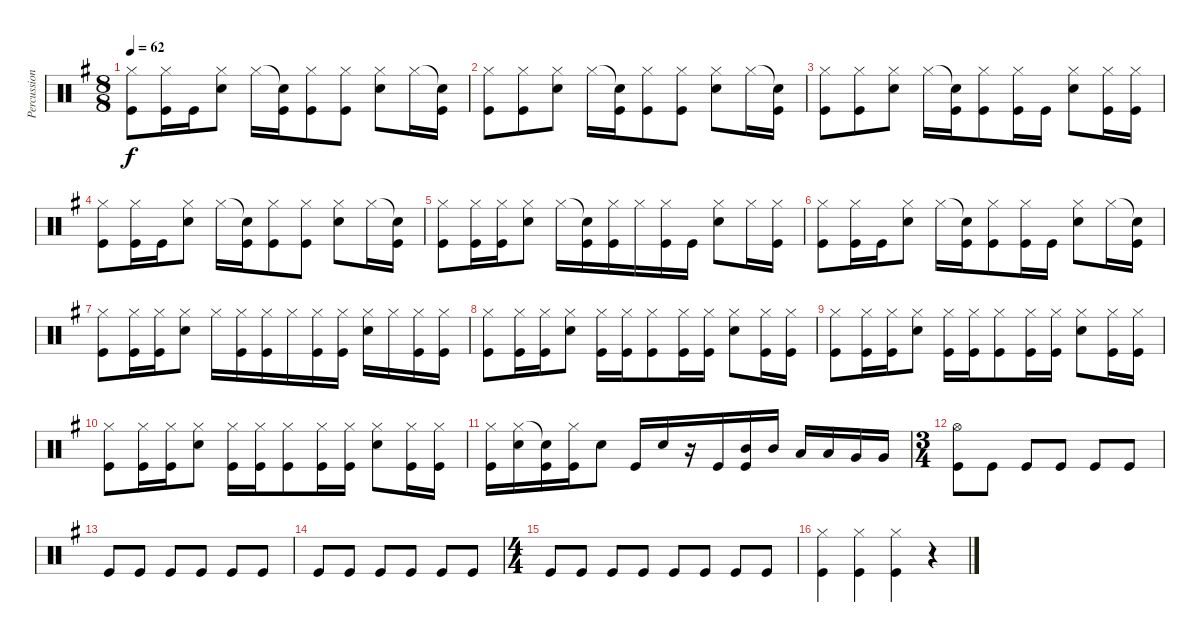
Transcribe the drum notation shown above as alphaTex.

\track ("Percussions" "Percussion") {instrument percussion}
\staff {score}
\articulation defaults
\ts (8 8)
\tempo 62
\clef neutral
\ks g
("Hi-Hat (closed)" "Kick (hit)").8{dy f} ("Hi-Hat (closed)" "Kick (hit)").16 "Kick (hit)".16 ("Hi-Hat (closed)" "Snare (hit) 2").8 "Hi-Hat (closed)".16 ("Snare (hit)"{t} "Kick (hit)").16 ("Hi-Hat (closed)" "Kick (hit)").8 ("Hi-Hat (closed)" "Kick (hit)").8 ("Hi-Hat (closed)" "Snare (hit) 2").8 "Hi-Hat (closed)".16 ("Snare (hit)"{t} "Kick (hit)").16 |
("Hi-Hat (closed)" "Kick (hit)").8 ("Hi-Hat (closed)" "Kick (hit)").8 ("Hi-Hat (closed)" "Snare (hit) 2").8 "Hi-Hat (closed)".16 ("Snare (hit)"{t} "Kick (hit)").16 ("Hi-Hat (closed)" "Kick (hit)").8 ("Hi-Hat (closed)" "Kick (hit)").8 ("Hi-Hat (closed)" "Snare (hit) 2").8 "Hi-Hat (closed)".16 ("Snare (hit)"{t} "Kick (hit)").16 |
("Hi-Hat (closed)" "Kick (hit)").8 ("Hi-Hat (closed)" "Kick (hit)").8 ("Hi-Hat (closed)" "Snare (hit) 2").8 "Hi-Hat (closed)".16 ("Snare (hit)"{t} "Kick (hit)").16 ("Hi-Hat (closed)" "Kick (hit)").8 ("Hi-Hat (closed)" "Kick (hit)").16 "Kick (hit)".16 ("Hi-Hat (closed)" "Snare (hit) 2").8 ("Hi-Hat (closed)" "Kick (hit)").16 ("Hi-Hat (closed)" "Kick (hit)").16 |
("Hi-Hat (closed)" "Kick (hit)").8 ("Hi-Hat (closed)" "Kick (hit)").16 "Kick (hit)".16 ("Hi-Hat (closed)" "Snare (hit) 2").8 "Hi-Hat (closed)".16 ("Snare (hit)"{t} "Kick (hit)").16 ("Hi-Hat (closed)" "Kick (hit)").8 ("Hi-Hat (closed)" "Kick (hit)").8 ("Hi-Hat (closed)" "Snare (hit) 2").8 "Hi-Hat (closed)".16 ("Snare (hit)"{t} "Kick (hit)").16 |
("Hi-Hat (closed)" "Kick (hit)").8 ("Hi-Hat (closed)" "Kick (hit)").16 ("Hi-Hat (closed)" "Kick (hit)").16 ("Hi-Hat (closed)" "Snare (hit) 2").8 "Hi-Hat (closed)".16 ("Snare (hit)"{t} "Kick (hit)").16 ("Hi-Hat (closed)" "Kick (hit)").16 "Hi-Hat (closed)".16 ("Hi-Hat (closed)" "Kick (hit)").16 "Kick (hit)".16 ("Hi-Hat (closed)" "Snare (hit) 2").8 "Hi-Hat (closed)".16 ("Hi-Hat (closed)" "Kick (hit)").16 |
("Hi-Hat (closed)" "Kick (hit)").8 ("Hi-Hat (closed)" "Kick (hit)").16 "Kick (hit)".16 ("Hi-Hat (closed)" "Snare (hit) 2").8 "Hi-Hat (closed)".16 ("Snare (hit)"{t} "Kick (hit)").16 ("Hi-Hat (closed)" "Kick (hit)").8 ("Hi-Hat (closed)" "Kick (hit)").16 "Kick (hit)".16 ("Hi-Hat (closed)" "Snare (hit) 2").8 "Hi-Hat (closed)".16 ("Snare (hit)"{t} "Kick (hit)").16 |
("Hi-Hat (closed)" "Kick (hit)").8 ("Hi-Hat (closed)" "Kick (hit)").16 ("Hi-Hat (closed)" "Kick (hit)").16 ("Hi-Hat (closed)" "Snare (hit) 2").8 "Hi-Hat (closed)".16 ("Hi-Hat (closed)" "Kick (hit)").16 ("Hi-Hat (closed)" "Kick (hit)").16 "Hi-Hat (closed)".16 ("Hi-Hat (closed)" "Kick (hit)").16 ("Hi-Hat (closed)" "Kick (hit)").16 ("Hi-Hat (closed)" "Snare (hit) 2").16 "Hi-Hat (closed)".16 ("Hi-Hat (closed)" "Kick (hit)").16 ("Hi-Hat (closed)" "Kick (hit)").16 |
("Hi-Hat (closed)" "Kick (hit)").8 ("Hi-Hat (closed)" "Kick (hit)").16 ("Hi-Hat (closed)" "Kick (hit)").16 ("Hi-Hat (closed)" "Snare (hit) 2").8 ("Hi-Hat (closed)" "Kick (hit)").16 ("Hi-Hat (closed)" "Kick (hit)").16 ("Hi-Hat (closed)" "Kick (hit)").8 ("Hi-Hat (closed)" "Kick (hit)").16 ("Hi-Hat (closed)" "Kick (hit)").16 ("Hi-Hat (closed)" "Snare (hit) 2").8 ("Hi-Hat (closed)" "Kick (hit)").16 ("Hi-Hat (closed)" "Kick (hit)").16 |
("Hi-Hat (closed)" "Kick (hit)").8 ("Hi-Hat (closed)" "Kick (hit)").16 ("Hi-Hat (closed)" "Kick (hit)").16 ("Hi-Hat (closed)" "Snare (hit) 2").8 ("Hi-Hat (closed)" "Kick (hit)").16 ("Hi-Hat (closed)" "Kick (hit)").16 ("Hi-Hat (closed)" "Kick (hit)").8 ("Hi-Hat (closed)" "Kick (hit)").16 ("Hi-Hat (closed)" "Kick (hit)").16 ("Hi-Hat (closed)" "Snare (hit) 2").8 ("Hi-Hat (closed)" "Kick (hit)").16 ("Hi-Hat (closed)" "Kick (hit)").16 |
("Hi-Hat (closed)" "Kick (hit)").8 ("Hi-Hat (closed)" "Kick (hit)").16 ("Hi-Hat (closed)" "Kick (hit)").16 ("Hi-Hat (closed)" "Snare (hit) 2").8 ("Hi-Hat (closed)" "Kick (hit)").16 ("Hi-Hat (closed)" "Kick (hit)").16 ("Hi-Hat (closed)" "Kick (hit)").8 ("Hi-Hat (closed)" "Kick (hit)").16 ("Hi-Hat (closed)" "Kick (hit)").16 ("Hi-Hat (closed)" "Snare (hit) 2").8 ("Hi-Hat (closed)" "Kick (hit)").16 ("Hi-Hat (closed)" "Kick (hit)").16 |
("Hi-Hat (closed)" "Kick (hit)").16 ("Hi-Hat (closed)" "Snare (hit) 2").16 ("Snare (hit)"{t} "Kick (hit)").16 ("Hi-Hat (closed)" "Kick (hit)").16 "Snare (hit) 2".8 "Kick (hit)".16 "Snare (hit) 2".16 r.16 "Kick (hit)".16 ("Mid Tom (hit)" "Kick (hit)").16 "Mid Tom (hit)".16 "Low Tom (hit)".16 "Low Tom (hit)".16 "Very Low Tom (hit)".16 "Very Low Tom (hit)".16 |
\ts (3 4)
("Hi-Hat (open)" "Kick (hit)").8 "Kick (hit)".8 "Kick (hit)".8 "Kick (hit)".8 "Kick (hit)".8 "Kick (hit)".8 |
"Kick (hit)".8 "Kick (hit)".8 "Kick (hit)".8 "Kick (hit)".8 "Kick (hit)".8 "Kick (hit)".8 |
"Kick (hit)".8 "Kick (hit)".8 "Kick (hit)".8 "Kick (hit)".8 "Kick (hit)".8 "Kick (hit)".8 |
\ts (4 4)
"Kick (hit)".8 "Kick (hit)".8 "Kick (hit)".8 "Kick (hit)".8 "Kick (hit)".8 "Kick (hit)".8 "Kick (hit)".8 "Kick (hit)".8 |
("Hi-Hat (closed)" "Kick (hit)").4 ("Hi-Hat (closed)" "Kick (hit)").4 ("Hi-Hat (closed)" "Kick (hit)").4 r.4
